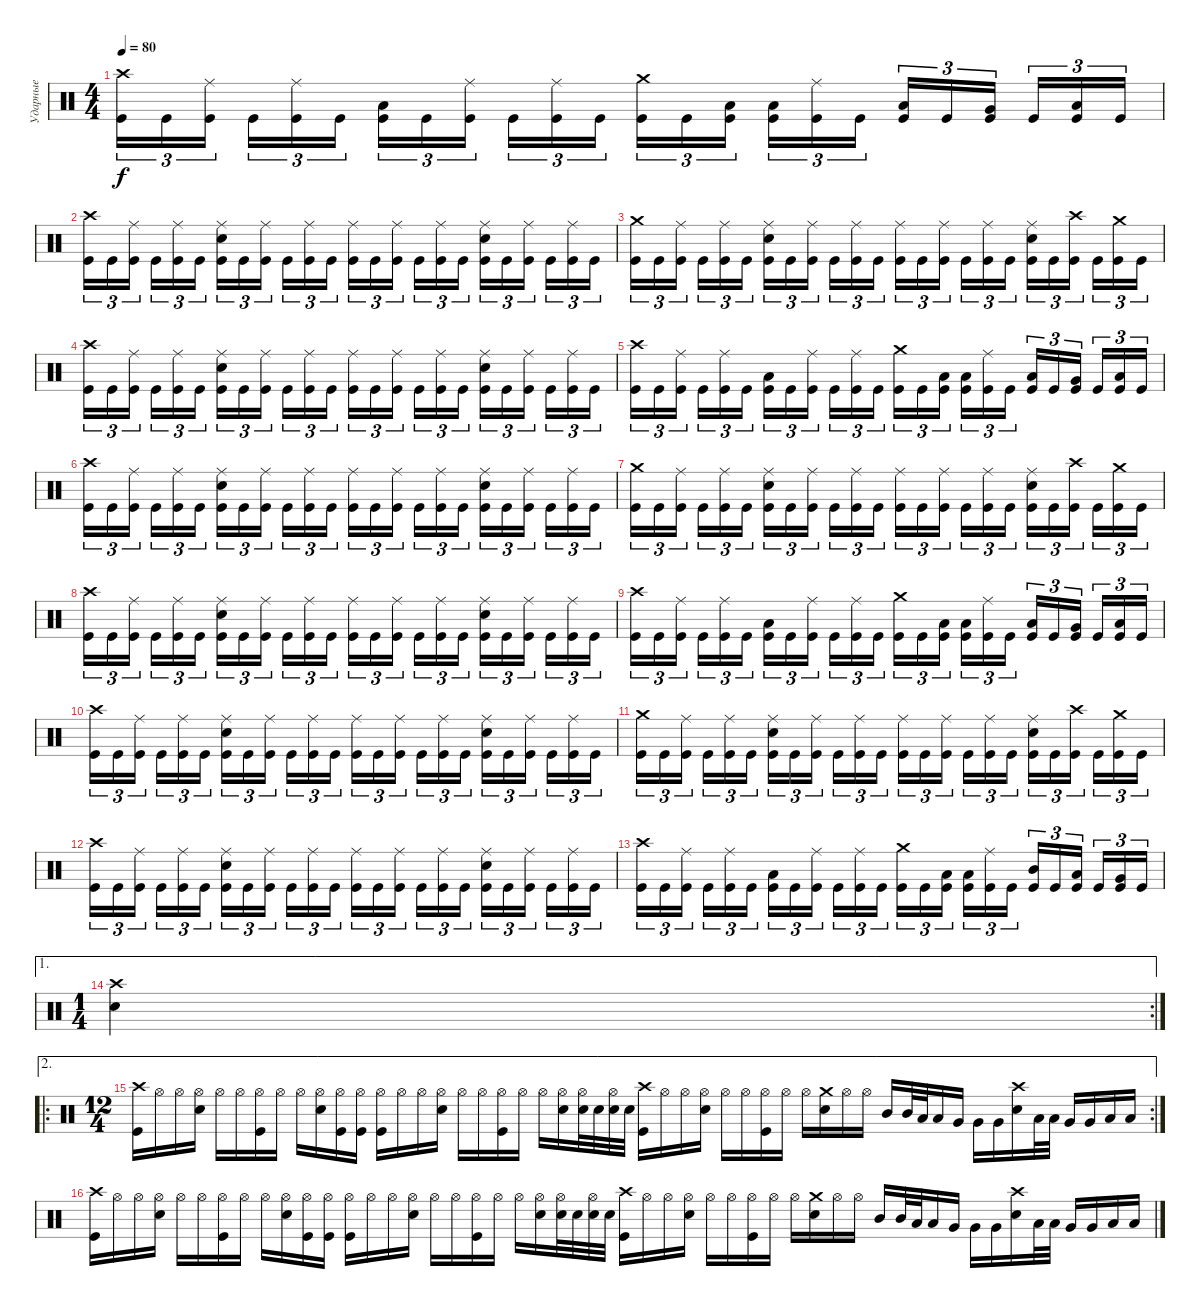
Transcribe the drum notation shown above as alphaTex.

\track ("Ударные" "Ударные") {instrument percussion}
\staff {score}
\articulation defaults
\ts (4 4)
\tempo 80
\clef neutral
\ks c
("Crash high (hit)" "Kick (hit)").16{tu (3 2) dy f} "Kick (hit)".16{tu (3 2)} ("Ride (middle)" "Kick (hit)").16{tu (3 2)} "Kick (hit)".16{tu (3 2)} ("Ride (middle)" "Kick (hit)").16{tu (3 2)} "Kick (hit)".16{tu (3 2)} ("Low Floor Tom (hit)" "Kick (hit)").16{tu (3 2)} "Kick (hit)".16{tu (3 2)} ("Ride (middle)" "Kick (hit)").16{tu (3 2)} "Kick (hit)".16{tu (3 2)} ("Ride (middle)" "Kick (hit)").16{tu (3 2)} "Kick (hit)".16{tu (3 2)} ("Crash medium (hit)" "Kick (hit)").16{tu (3 2)} "Kick (hit)".16{tu (3 2)} ("Low Floor Tom (hit)" "Kick (hit)").16{tu (3 2)} ("Low Floor Tom (hit)" "Kick (hit)").16{tu (3 2)} ("Ride (middle)" "Kick (hit)").16{tu (3 2)} "Kick (hit)".16{tu (3 2)} ("Low Tom (hit)" "Kick (hit)").16{tu (3 2)} "Kick (hit)".16{tu (3 2)} ("Very Low Tom (hit)" "Kick (hit)").16{tu (3 2)} "Kick (hit)".16{tu (3 2)} ("Low Floor Tom (hit)" "Kick (hit)").16{tu (3 2)} "Kick (hit)".16{tu (3 2)} |
("Crash high (hit)" "Kick (hit)").16{tu (3 2)} "Kick (hit)".16{tu (3 2)} ("Ride (middle)" "Kick (hit)").16{tu (3 2)} "Kick (hit)".16{tu (3 2)} ("Ride (middle)" "Kick (hit)").16{tu (3 2)} "Kick (hit)".16{tu (3 2)} ("Ride (middle)" "Electric Snare (hit)" "Kick (hit)").16{tu (3 2)} "Kick (hit)".16{tu (3 2)} ("Ride (middle)" "Kick (hit)").16{tu (3 2)} "Kick (hit)".16{tu (3 2)} ("Ride (middle)" "Kick (hit)").16{tu (3 2)} "Kick (hit)".16{tu (3 2)} ("Ride (middle)" "Kick (hit)").16{tu (3 2)} "Kick (hit)".16{tu (3 2)} ("Ride (middle)" "Kick (hit)").16{tu (3 2)} "Kick (hit)".16{tu (3 2)} ("Ride (middle)" "Kick (hit)").16{tu (3 2)} "Kick (hit)".16{tu (3 2)} ("Ride (middle)" "Electric Snare (hit)" "Kick (hit)").16{tu (3 2)} "Kick (hit)".16{tu (3 2)} ("Ride (middle)" "Kick (hit)").16{tu (3 2)} "Kick (hit)".16{tu (3 2)} ("Ride (middle)" "Kick (hit)").16{tu (3 2)} "Kick (hit)".16{tu (3 2)} |
("Crash medium (hit)" "Kick (hit)").16{tu (3 2)} "Kick (hit)".16{tu (3 2)} ("Ride (middle)" "Kick (hit)").16{tu (3 2)} "Kick (hit)".16{tu (3 2)} ("Ride (middle)" "Kick (hit)").16{tu (3 2)} "Kick (hit)".16{tu (3 2)} ("Ride (middle)" "Electric Snare (hit)" "Kick (hit)").16{tu (3 2)} "Kick (hit)".16{tu (3 2)} ("Ride (middle)" "Kick (hit)").16{tu (3 2)} "Kick (hit)".16{tu (3 2)} ("Ride (middle)" "Kick (hit)").16{tu (3 2)} "Kick (hit)".16{tu (3 2)} ("Ride (middle)" "Kick (hit)").16{tu (3 2)} "Kick (hit)".16{tu (3 2)} ("Ride (middle)" "Kick (hit)").16{tu (3 2)} "Kick (hit)".16{tu (3 2)} ("Ride (middle)" "Kick (hit)").16{tu (3 2)} "Kick (hit)".16{tu (3 2)} ("Ride (middle)" "Electric Snare (hit)" "Kick (hit)").16{tu (3 2)} "Kick (hit)".16{tu (3 2)} ("Crash high (hit)" "Kick (hit)").16{tu (3 2)} "Kick (hit)".16{tu (3 2)} ("Crash medium (hit)" "Kick (hit)").16{tu (3 2)} "Kick (hit)".16{tu (3 2)} |
("Crash high (hit)" "Kick (hit)").16{tu (3 2)} "Kick (hit)".16{tu (3 2)} ("Ride (middle)" "Kick (hit)").16{tu (3 2)} "Kick (hit)".16{tu (3 2)} ("Ride (middle)" "Kick (hit)").16{tu (3 2)} "Kick (hit)".16{tu (3 2)} ("Ride (middle)" "Electric Snare (hit)" "Kick (hit)").16{tu (3 2)} "Kick (hit)".16{tu (3 2)} ("Ride (middle)" "Kick (hit)").16{tu (3 2)} "Kick (hit)".16{tu (3 2)} ("Ride (middle)" "Kick (hit)").16{tu (3 2)} "Kick (hit)".16{tu (3 2)} ("Ride (middle)" "Kick (hit)").16{tu (3 2)} "Kick (hit)".16{tu (3 2)} ("Ride (middle)" "Kick (hit)").16{tu (3 2)} "Kick (hit)".16{tu (3 2)} ("Ride (middle)" "Kick (hit)").16{tu (3 2)} "Kick (hit)".16{tu (3 2)} ("Ride (middle)" "Electric Snare (hit)" "Kick (hit)").16{tu (3 2)} "Kick (hit)".16{tu (3 2)} ("Ride (middle)" "Kick (hit)").16{tu (3 2)} "Kick (hit)".16{tu (3 2)} ("Ride (middle)" "Kick (hit)").16{tu (3 2)} "Kick (hit)".16{tu (3 2)} |
("Crash high (hit)" "Kick (hit)").16{tu (3 2)} "Kick (hit)".16{tu (3 2)} ("Ride (middle)" "Kick (hit)").16{tu (3 2)} "Kick (hit)".16{tu (3 2)} ("Ride (middle)" "Kick (hit)").16{tu (3 2)} "Kick (hit)".16{tu (3 2)} ("Low Floor Tom (hit)" "Kick (hit)").16{tu (3 2)} "Kick (hit)".16{tu (3 2)} ("Ride (middle)" "Kick (hit)").16{tu (3 2)} "Kick (hit)".16{tu (3 2)} ("Ride (middle)" "Kick (hit)").16{tu (3 2)} "Kick (hit)".16{tu (3 2)} ("Crash medium (hit)" "Kick (hit)").16{tu (3 2)} "Kick (hit)".16{tu (3 2)} ("Low Floor Tom (hit)" "Kick (hit)").16{tu (3 2)} ("Low Floor Tom (hit)" "Kick (hit)").16{tu (3 2)} ("Ride (middle)" "Kick (hit)").16{tu (3 2)} "Kick (hit)".16{tu (3 2)} ("Low Tom (hit)" "Kick (hit)").16{tu (3 2)} "Kick (hit)".16{tu (3 2)} ("Very Low Tom (hit)" "Kick (hit)").16{tu (3 2)} "Kick (hit)".16{tu (3 2)} ("Low Floor Tom (hit)" "Kick (hit)").16{tu (3 2)} "Kick (hit)".16{tu (3 2)} |
("Crash high (hit)" "Kick (hit)").16{tu (3 2)} "Kick (hit)".16{tu (3 2)} ("Ride (middle)" "Kick (hit)").16{tu (3 2)} "Kick (hit)".16{tu (3 2)} ("Ride (middle)" "Kick (hit)").16{tu (3 2)} "Kick (hit)".16{tu (3 2)} ("Ride (middle)" "Electric Snare (hit)" "Kick (hit)").16{tu (3 2)} "Kick (hit)".16{tu (3 2)} ("Ride (middle)" "Kick (hit)").16{tu (3 2)} "Kick (hit)".16{tu (3 2)} ("Ride (middle)" "Kick (hit)").16{tu (3 2)} "Kick (hit)".16{tu (3 2)} ("Ride (middle)" "Kick (hit)").16{tu (3 2)} "Kick (hit)".16{tu (3 2)} ("Ride (middle)" "Kick (hit)").16{tu (3 2)} "Kick (hit)".16{tu (3 2)} ("Ride (middle)" "Kick (hit)").16{tu (3 2)} "Kick (hit)".16{tu (3 2)} ("Ride (middle)" "Electric Snare (hit)" "Kick (hit)").16{tu (3 2)} "Kick (hit)".16{tu (3 2)} ("Ride (middle)" "Kick (hit)").16{tu (3 2)} "Kick (hit)".16{tu (3 2)} ("Ride (middle)" "Kick (hit)").16{tu (3 2)} "Kick (hit)".16{tu (3 2)} |
("Crash medium (hit)" "Kick (hit)").16{tu (3 2)} "Kick (hit)".16{tu (3 2)} ("Ride (middle)" "Kick (hit)").16{tu (3 2)} "Kick (hit)".16{tu (3 2)} ("Ride (middle)" "Kick (hit)").16{tu (3 2)} "Kick (hit)".16{tu (3 2)} ("Ride (middle)" "Electric Snare (hit)" "Kick (hit)").16{tu (3 2)} "Kick (hit)".16{tu (3 2)} ("Ride (middle)" "Kick (hit)").16{tu (3 2)} "Kick (hit)".16{tu (3 2)} ("Ride (middle)" "Kick (hit)").16{tu (3 2)} "Kick (hit)".16{tu (3 2)} ("Ride (middle)" "Kick (hit)").16{tu (3 2)} "Kick (hit)".16{tu (3 2)} ("Ride (middle)" "Kick (hit)").16{tu (3 2)} "Kick (hit)".16{tu (3 2)} ("Ride (middle)" "Kick (hit)").16{tu (3 2)} "Kick (hit)".16{tu (3 2)} ("Ride (middle)" "Electric Snare (hit)" "Kick (hit)").16{tu (3 2)} "Kick (hit)".16{tu (3 2)} ("Crash high (hit)" "Kick (hit)").16{tu (3 2)} "Kick (hit)".16{tu (3 2)} ("Crash medium (hit)" "Kick (hit)").16{tu (3 2)} "Kick (hit)".16{tu (3 2)} |
("Crash high (hit)" "Kick (hit)").16{tu (3 2)} "Kick (hit)".16{tu (3 2)} ("Ride (middle)" "Kick (hit)").16{tu (3 2)} "Kick (hit)".16{tu (3 2)} ("Ride (middle)" "Kick (hit)").16{tu (3 2)} "Kick (hit)".16{tu (3 2)} ("Ride (middle)" "Electric Snare (hit)" "Kick (hit)").16{tu (3 2)} "Kick (hit)".16{tu (3 2)} ("Ride (middle)" "Kick (hit)").16{tu (3 2)} "Kick (hit)".16{tu (3 2)} ("Ride (middle)" "Kick (hit)").16{tu (3 2)} "Kick (hit)".16{tu (3 2)} ("Ride (middle)" "Kick (hit)").16{tu (3 2)} "Kick (hit)".16{tu (3 2)} ("Ride (middle)" "Kick (hit)").16{tu (3 2)} "Kick (hit)".16{tu (3 2)} ("Ride (middle)" "Kick (hit)").16{tu (3 2)} "Kick (hit)".16{tu (3 2)} ("Ride (middle)" "Electric Snare (hit)" "Kick (hit)").16{tu (3 2)} "Kick (hit)".16{tu (3 2)} ("Ride (middle)" "Kick (hit)").16{tu (3 2)} "Kick (hit)".16{tu (3 2)} ("Ride (middle)" "Kick (hit)").16{tu (3 2)} "Kick (hit)".16{tu (3 2)} |
("Crash high (hit)" "Kick (hit)").16{tu (3 2)} "Kick (hit)".16{tu (3 2)} ("Ride (middle)" "Kick (hit)").16{tu (3 2)} "Kick (hit)".16{tu (3 2)} ("Ride (middle)" "Kick (hit)").16{tu (3 2)} "Kick (hit)".16{tu (3 2)} ("Low Floor Tom (hit)" "Kick (hit)").16{tu (3 2)} "Kick (hit)".16{tu (3 2)} ("Ride (middle)" "Kick (hit)").16{tu (3 2)} "Kick (hit)".16{tu (3 2)} ("Ride (middle)" "Kick (hit)").16{tu (3 2)} "Kick (hit)".16{tu (3 2)} ("Crash medium (hit)" "Kick (hit)").16{tu (3 2)} "Kick (hit)".16{tu (3 2)} ("Low Floor Tom (hit)" "Kick (hit)").16{tu (3 2)} ("Low Floor Tom (hit)" "Kick (hit)").16{tu (3 2)} ("Ride (middle)" "Kick (hit)").16{tu (3 2)} "Kick (hit)".16{tu (3 2)} ("Low Tom (hit)" "Kick (hit)").16{tu (3 2)} "Kick (hit)".16{tu (3 2)} ("Very Low Tom (hit)" "Kick (hit)").16{tu (3 2)} "Kick (hit)".16{tu (3 2)} ("Low Floor Tom (hit)" "Kick (hit)").16{tu (3 2)} "Kick (hit)".16{tu (3 2)} |
("Crash high (hit)" "Kick (hit)").16{tu (3 2)} "Kick (hit)".16{tu (3 2)} ("Ride (middle)" "Kick (hit)").16{tu (3 2)} "Kick (hit)".16{tu (3 2)} ("Ride (middle)" "Kick (hit)").16{tu (3 2)} "Kick (hit)".16{tu (3 2)} ("Ride (middle)" "Electric Snare (hit)" "Kick (hit)").16{tu (3 2)} "Kick (hit)".16{tu (3 2)} ("Ride (middle)" "Kick (hit)").16{tu (3 2)} "Kick (hit)".16{tu (3 2)} ("Ride (middle)" "Kick (hit)").16{tu (3 2)} "Kick (hit)".16{tu (3 2)} ("Ride (middle)" "Kick (hit)").16{tu (3 2)} "Kick (hit)".16{tu (3 2)} ("Ride (middle)" "Kick (hit)").16{tu (3 2)} "Kick (hit)".16{tu (3 2)} ("Ride (middle)" "Kick (hit)").16{tu (3 2)} "Kick (hit)".16{tu (3 2)} ("Ride (middle)" "Electric Snare (hit)" "Kick (hit)").16{tu (3 2)} "Kick (hit)".16{tu (3 2)} ("Ride (middle)" "Kick (hit)").16{tu (3 2)} "Kick (hit)".16{tu (3 2)} ("Ride (middle)" "Kick (hit)").16{tu (3 2)} "Kick (hit)".16{tu (3 2)} |
("Crash medium (hit)" "Kick (hit)").16{tu (3 2)} "Kick (hit)".16{tu (3 2)} ("Ride (middle)" "Kick (hit)").16{tu (3 2)} "Kick (hit)".16{tu (3 2)} ("Ride (middle)" "Kick (hit)").16{tu (3 2)} "Kick (hit)".16{tu (3 2)} ("Ride (middle)" "Electric Snare (hit)" "Kick (hit)").16{tu (3 2)} "Kick (hit)".16{tu (3 2)} ("Ride (middle)" "Kick (hit)").16{tu (3 2)} "Kick (hit)".16{tu (3 2)} ("Ride (middle)" "Kick (hit)").16{tu (3 2)} "Kick (hit)".16{tu (3 2)} ("Ride (middle)" "Kick (hit)").16{tu (3 2)} "Kick (hit)".16{tu (3 2)} ("Ride (middle)" "Kick (hit)").16{tu (3 2)} "Kick (hit)".16{tu (3 2)} ("Ride (middle)" "Kick (hit)").16{tu (3 2)} "Kick (hit)".16{tu (3 2)} ("Ride (middle)" "Electric Snare (hit)" "Kick (hit)").16{tu (3 2)} "Kick (hit)".16{tu (3 2)} ("Crash high (hit)" "Kick (hit)").16{tu (3 2)} "Kick (hit)".16{tu (3 2)} ("Crash medium (hit)" "Kick (hit)").16{tu (3 2)} "Kick (hit)".16{tu (3 2)} |
("Crash high (hit)" "Kick (hit)").16{tu (3 2)} "Kick (hit)".16{tu (3 2)} ("Ride (middle)" "Kick (hit)").16{tu (3 2)} "Kick (hit)".16{tu (3 2)} ("Ride (middle)" "Kick (hit)").16{tu (3 2)} "Kick (hit)".16{tu (3 2)} ("Ride (middle)" "Electric Snare (hit)" "Kick (hit)").16{tu (3 2)} "Kick (hit)".16{tu (3 2)} ("Ride (middle)" "Kick (hit)").16{tu (3 2)} "Kick (hit)".16{tu (3 2)} ("Ride (middle)" "Kick (hit)").16{tu (3 2)} "Kick (hit)".16{tu (3 2)} ("Ride (middle)" "Kick (hit)").16{tu (3 2)} "Kick (hit)".16{tu (3 2)} ("Ride (middle)" "Kick (hit)").16{tu (3 2)} "Kick (hit)".16{tu (3 2)} ("Ride (middle)" "Kick (hit)").16{tu (3 2)} "Kick (hit)".16{tu (3 2)} ("Ride (middle)" "Electric Snare (hit)" "Kick (hit)").16{tu (3 2)} "Kick (hit)".16{tu (3 2)} ("Ride (middle)" "Kick (hit)").16{tu (3 2)} "Kick (hit)".16{tu (3 2)} ("Ride (middle)" "Kick (hit)").16{tu (3 2)} "Kick (hit)".16{tu (3 2)} |
("Crash high (hit)" "Kick (hit)").16{tu (3 2)} "Kick (hit)".16{tu (3 2)} ("Ride (middle)" "Kick (hit)").16{tu (3 2)} "Kick (hit)".16{tu (3 2)} ("Ride (middle)" "Kick (hit)").16{tu (3 2)} "Kick (hit)".16{tu (3 2)} ("Low Floor Tom (hit)" "Kick (hit)").16{tu (3 2)} "Kick (hit)".16{tu (3 2)} ("Ride (middle)" "Kick (hit)").16{tu (3 2)} "Kick (hit)".16{tu (3 2)} ("Ride (middle)" "Kick (hit)").16{tu (3 2)} "Kick (hit)".16{tu (3 2)} ("Crash medium (hit)" "Kick (hit)").16{tu (3 2)} "Kick (hit)".16{tu (3 2)} ("Low Floor Tom (hit)" "Kick (hit)").16{tu (3 2)} ("Low Floor Tom (hit)" "Kick (hit)").16{tu (3 2)} ("Ride (middle)" "Kick (hit)").16{tu (3 2)} "Kick (hit)".16{tu (3 2)} ("Mid Tom (hit)" "Kick (hit)").16{tu (3 2)} "Kick (hit)".16{tu (3 2)} ("Low Tom (hit)" "Kick (hit)").16{tu (3 2)} "Kick (hit)".16{tu (3 2)} ("Very Low Tom (hit)" "Kick (hit)").16{tu (3 2)} "Kick (hit)".16{tu (3 2)} |
\ae 1
\rc 2
\ts (1 4)
("Crash high (hit)" "Electric Snare (hit)").4 |
\ae 2
\ro
\rc 2
\ts (12 4)
("Crash high (hit)" "Kick (hit)").16 "Hi-Hat (open)".16 "Hi-Hat (open)".16 ("Hi-Hat (open)" "Electric Snare (hit)").16 "Hi-Hat (open)".16 "Hi-Hat (open)".16 ("Hi-Hat (open)" "Kick (hit)").16 "Hi-Hat (open)".16 "Hi-Hat (open)".16 ("Hi-Hat (open)" "Electric Snare (hit)").16 ("Hi-Hat (open)" "Kick (hit)").16 ("Hi-Hat (open)" "Kick (hit)").16 ("Hi-Hat (open)" "Kick (hit)").16 "Hi-Hat (open)".16 "Hi-Hat (open)".16 ("Hi-Hat (open)" "Electric Snare (hit)").16 "Hi-Hat (open)".16 "Hi-Hat (open)".16 ("Hi-Hat (open)" "Kick (hit)").16 "Hi-Hat (open)".16 "Hi-Hat (open)".16 ("Hi-Hat (open)" "Electric Snare (hit)").16 ("Hi-Hat (open)" "Electric Snare (hit)").32 "Electric Snare (hit)".32 ("Hi-Hat (open)" "Electric Snare (hit)").32 "Electric Snare (hit)".32 ("Crash high (hit)" "Kick (hit)").16 "Hi-Hat (open)".16 "Hi-Hat (open)".16 ("Hi-Hat (open)" "Electric Snare (hit)").16 "Hi-Hat (open)".16 "Hi-Hat (open)".16 ("Hi-Hat (open)" "Kick (hit)").16 "Hi-Hat (open)".16 "Hi-Hat (open)".16 ("Crash medium (hit)" "Electric Snare (hit)").16 "Hi-Hat (open)".16 "Hi-Hat (open)".16 "Mid Tom (hit)".16 "Mid Tom (hit)".32 "Low Tom (hit)".32 "Low Tom (hit)".16 "Very Low Tom (hit)".16 "Very Low Tom (hit)".16 "Very Low Tom (hit)".16 ("Crash high (hit)" "Electric Snare (hit)").16 "Low Tom (hit)".32 "Low Tom (hit)".32 "Very Low Tom (hit)".16 "Very Low Tom (hit)".16 "Low Floor Tom (hit)".16 "Low Floor Tom (hit)".16 |
("Crash high (hit)" "Kick (hit)").16 "Hi-Hat (open)".16 "Hi-Hat (open)".16 ("Hi-Hat (open)" "Electric Snare (hit)").16 "Hi-Hat (open)".16 "Hi-Hat (open)".16 ("Hi-Hat (open)" "Kick (hit)").16 "Hi-Hat (open)".16 "Hi-Hat (open)".16 ("Hi-Hat (open)" "Electric Snare (hit)").16 ("Hi-Hat (open)" "Kick (hit)").16 ("Hi-Hat (open)" "Kick (hit)").16 ("Hi-Hat (open)" "Kick (hit)").16 "Hi-Hat (open)".16 "Hi-Hat (open)".16 ("Hi-Hat (open)" "Electric Snare (hit)").16 "Hi-Hat (open)".16 "Hi-Hat (open)".16 ("Hi-Hat (open)" "Kick (hit)").16 "Hi-Hat (open)".16 "Hi-Hat (open)".16 ("Hi-Hat (open)" "Electric Snare (hit)").16 ("Hi-Hat (open)" "Electric Snare (hit)").32 "Electric Snare (hit)".32 ("Hi-Hat (open)" "Electric Snare (hit)").32 "Electric Snare (hit)".32 ("Crash high (hit)" "Kick (hit)").16 "Hi-Hat (open)".16 "Hi-Hat (open)".16 ("Hi-Hat (open)" "Electric Snare (hit)").16 "Hi-Hat (open)".16 "Hi-Hat (open)".16 ("Hi-Hat (open)" "Kick (hit)").16 "Hi-Hat (open)".16 "Hi-Hat (open)".16 ("Crash medium (hit)" "Electric Snare (hit)").16 "Hi-Hat (open)".16 "Hi-Hat (open)".16 "Mid Tom (hit)".16 "Mid Tom (hit)".32 "Low Tom (hit)".32 "Low Tom (hit)".16 "Very Low Tom (hit)".16 "Very Low Tom (hit)".16 "Very Low Tom (hit)".16 ("Crash high (hit)" "Electric Snare (hit)").16 "Low Tom (hit)".32 "Low Tom (hit)".32 "Very Low Tom (hit)".16 "Very Low Tom (hit)".16 "Low Floor Tom (hit)".16 "Low Floor Tom (hit)".16
